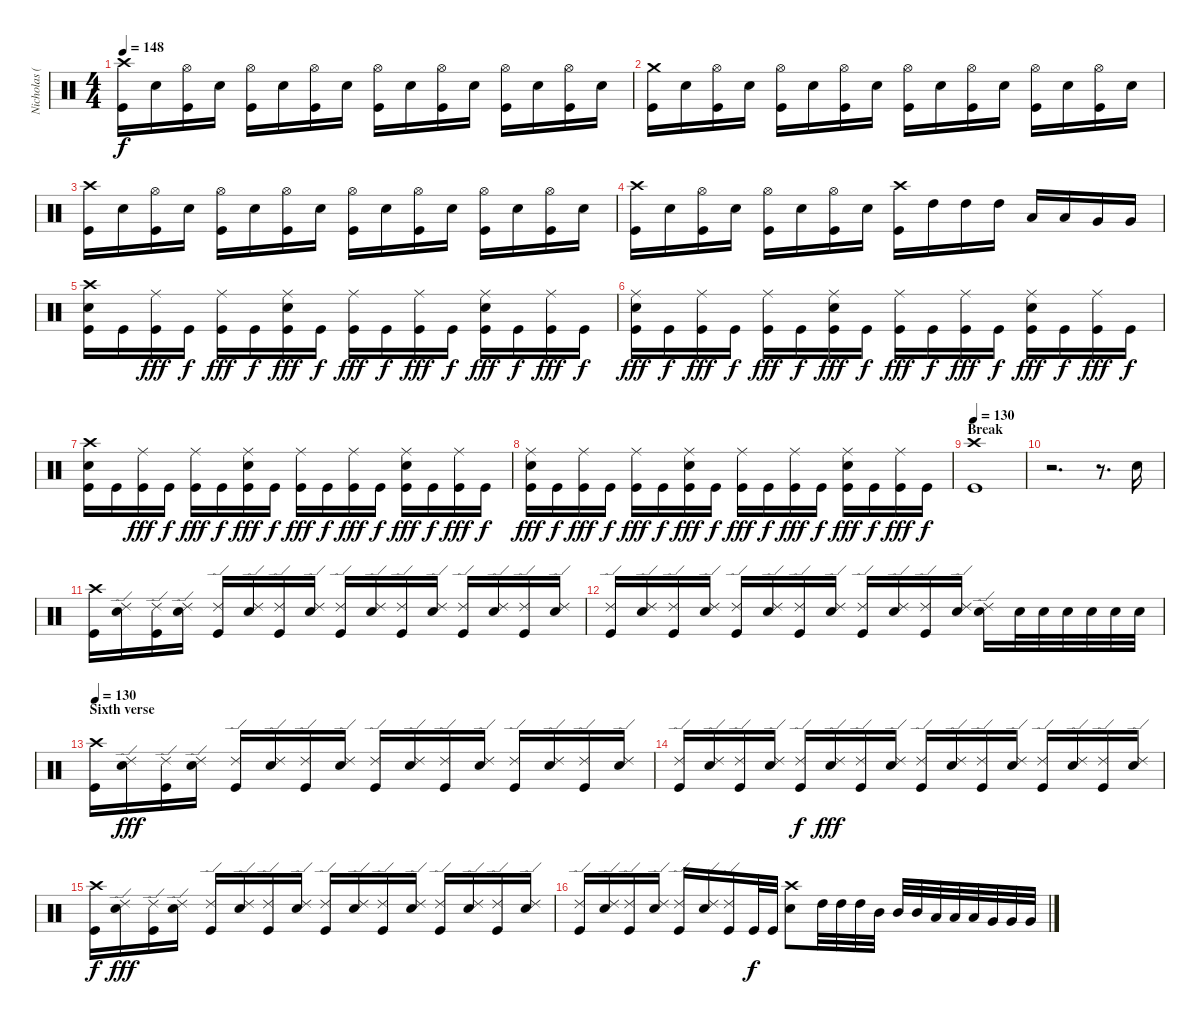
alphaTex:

\track ("Nicholas (Drums)" "Nicholas (") {instrument percussion}
\staff {score}
\articulation defaults
\ts (4 4)
\tempo 148
\clef neutral
\ks c
("Crash high (hit)" "Kick (hit)").16{dy f} "Electric Snare (hit)".16 ("Hi-Hat (open)" "Kick (hit)").16 "Electric Snare (hit)".16 ("Hi-Hat (open)" "Kick (hit)").16 "Electric Snare (hit)".16 ("Hi-Hat (open)" "Kick (hit)").16 "Electric Snare (hit)".16 ("Hi-Hat (open)" "Kick (hit)").16 "Electric Snare (hit)".16 ("Hi-Hat (open)" "Kick (hit)").16 "Electric Snare (hit)".16 ("Hi-Hat (open)" "Kick (hit)").16 "Electric Snare (hit)".16 ("Hi-Hat (open)" "Kick (hit)").16 "Electric Snare (hit)".16 |
("Crash medium (hit)" "Kick (hit)").16 "Electric Snare (hit)".16 ("Hi-Hat (open)" "Kick (hit)").16 "Electric Snare (hit)".16 ("Hi-Hat (open)" "Kick (hit)").16 "Electric Snare (hit)".16 ("Hi-Hat (open)" "Kick (hit)").16 "Electric Snare (hit)".16 ("Hi-Hat (open)" "Kick (hit)").16 "Electric Snare (hit)".16 ("Hi-Hat (open)" "Kick (hit)").16 "Electric Snare (hit)".16 ("Hi-Hat (open)" "Kick (hit)").16 "Electric Snare (hit)".16 ("Hi-Hat (open)" "Kick (hit)").16 "Electric Snare (hit)".16 |
("Crash high (hit)" "Kick (hit)").16 "Electric Snare (hit)".16 ("Hi-Hat (open)" "Kick (hit)").16 "Electric Snare (hit)".16 ("Hi-Hat (open)" "Kick (hit)").16 "Electric Snare (hit)".16 ("Hi-Hat (open)" "Kick (hit)").16 "Electric Snare (hit)".16 ("Hi-Hat (open)" "Kick (hit)").16 "Electric Snare (hit)".16 ("Hi-Hat (open)" "Kick (hit)").16 "Electric Snare (hit)".16 ("Hi-Hat (open)" "Kick (hit)").16 "Electric Snare (hit)".16 ("Hi-Hat (open)" "Kick (hit)").16 "Electric Snare (hit)".16 |
("Crash high (hit)" "Kick (hit)").16 "Electric Snare (hit)".16 ("Hi-Hat (open)" "Kick (hit)").16 "Electric Snare (hit)".16 ("Hi-Hat (open)" "Kick (hit)").16 "Electric Snare (hit)".16 ("Hi-Hat (open)" "Kick (hit)").16 "Electric Snare (hit)".16 ("Crash high (hit)" "Kick (hit)").16 "High Tom (hit)".16 "High Tom (hit)".16 "High Tom (hit)".16 "Low Tom (hit)".16 "Low Tom (hit)".16 "Very Low Tom (hit)".16 "Very Low Tom (hit)".16 |
("Crash high (hit)" "Electric Snare (hit)" "Kick (hit)").16 "Kick (hit)".16 ("Ride (middle)" "Kick (hit)").16{dy fff} "Kick (hit)".16{dy f} ("Ride (middle)" "Kick (hit)").16{dy fff} "Kick (hit)".16{dy f} ("Ride (middle)" "Electric Snare (hit)" "Kick (hit)").16{dy fff} "Kick (hit)".16{dy f} ("Ride (middle)" "Kick (hit)").16{dy fff} "Kick (hit)".16{dy f} ("Ride (middle)" "Kick (hit)").16{dy fff} "Kick (hit)".16{dy f} ("Ride (middle)" "Electric Snare (hit)" "Kick (hit)").16{dy fff} "Kick (hit)".16{dy f} ("Ride (middle)" "Kick (hit)").16{dy fff} "Kick (hit)".16{dy f} |
("Ride (middle)" "Electric Snare (hit)" "Kick (hit)").16{dy fff} "Kick (hit)".16{dy f} ("Ride (middle)" "Kick (hit)").16{dy fff} "Kick (hit)".16{dy f} ("Ride (middle)" "Kick (hit)").16{dy fff} "Kick (hit)".16{dy f} ("Ride (middle)" "Electric Snare (hit)" "Kick (hit)").16{dy fff} "Kick (hit)".16{dy f} ("Ride (middle)" "Kick (hit)").16{dy fff} "Kick (hit)".16{dy f} ("Ride (middle)" "Kick (hit)").16{dy fff} "Kick (hit)".16{dy f} ("Ride (middle)" "Electric Snare (hit)" "Kick (hit)").16{dy fff} "Kick (hit)".16{dy f} ("Ride (middle)" "Kick (hit)").16{dy fff} "Kick (hit)".16{dy f} |
("Crash high (hit)" "Electric Snare (hit)" "Kick (hit)").16 "Kick (hit)".16 ("Ride (middle)" "Kick (hit)").16{dy fff} "Kick (hit)".16{dy f} ("Ride (middle)" "Kick (hit)").16{dy fff} "Kick (hit)".16{dy f} ("Ride (middle)" "Electric Snare (hit)" "Kick (hit)").16{dy fff} "Kick (hit)".16{dy f} ("Ride (middle)" "Kick (hit)").16{dy fff} "Kick (hit)".16{dy f} ("Ride (middle)" "Kick (hit)").16{dy fff} "Kick (hit)".16{dy f} ("Ride (middle)" "Electric Snare (hit)" "Kick (hit)").16{dy fff} "Kick (hit)".16{dy f} ("Ride (middle)" "Kick (hit)").16{dy fff} "Kick (hit)".16{dy f} |
("Ride (middle)" "Electric Snare (hit)" "Kick (hit)").16{dy fff} "Kick (hit)".16{dy f} ("Ride (middle)" "Kick (hit)").16{dy fff} "Kick (hit)".16{dy f} ("Ride (middle)" "Kick (hit)").16{dy fff} "Kick (hit)".16{dy f} ("Ride (middle)" "Electric Snare (hit)" "Kick (hit)").16{dy fff} "Kick (hit)".16{dy f} ("Ride (middle)" "Kick (hit)").16{dy fff} "Kick (hit)".16{dy f} ("Ride (middle)" "Kick (hit)").16{dy fff} "Kick (hit)".16{dy f} ("Ride (middle)" "Electric Snare (hit)" "Kick (hit)").16{dy fff} "Kick (hit)".16{dy f} ("Ride (middle)" "Kick (hit)").16{dy fff} "Kick (hit)".16{dy f} |
\section ("" "Break")
\tempo 130
("Crash high (hit)" "Kick (hit)").1 |
r.2{d} r.8{d} "Electric Snare (hit)".16 |
("Crash high (hit)" "Kick (hit)").16 ("Ride (edge) 2" "Electric Snare (hit)").16 ("Ride (edge) 2" "Kick (hit)").16 ("Ride (edge) 2" "Electric Snare (hit)").16 ("Ride (edge) 2" "Kick (hit)").16 ("Ride (edge) 2" "Electric Snare (hit)").16 ("Ride (edge) 2" "Kick (hit)").16 ("Ride (edge) 2" "Electric Snare (hit)").16 ("Ride (edge) 2" "Kick (hit)").16 ("Ride (edge) 2" "Electric Snare (hit)").16 ("Ride (edge) 2" "Kick (hit)").16 ("Ride (edge) 2" "Electric Snare (hit)").16 ("Ride (edge) 2" "Kick (hit)").16 ("Ride (edge) 2" "Electric Snare (hit)").16 ("Ride (edge) 2" "Kick (hit)").16 ("Ride (edge) 2" "Electric Snare (hit)").16 |
("Ride (edge) 2" "Kick (hit)").16 ("Ride (edge) 2" "Electric Snare (hit)").16 ("Ride (edge) 2" "Kick (hit)").16 ("Ride (edge) 2" "Electric Snare (hit)").16 ("Ride (edge) 2" "Kick (hit)").16 ("Ride (edge) 2" "Electric Snare (hit)").16 ("Ride (edge) 2" "Kick (hit)").16 ("Ride (edge) 2" "Electric Snare (hit)").16 ("Ride (edge) 2" "Kick (hit)").16 ("Ride (edge) 2" "Electric Snare (hit)").16 ("Ride (edge) 2" "Kick (hit)").16 ("Ride (edge) 2" "Electric Snare (hit)").16 ("Ride (edge) 2" "Electric Snare (hit)").16 "Electric Snare (hit)".32 "Electric Snare (hit)".32 "Electric Snare (hit)".32 "Electric Snare (hit)".32 "Electric Snare (hit)".32 "Electric Snare (hit)".32 |
\section ("" "Sixth verse")
\tempo 130
("Crash high (hit)" "Kick (hit)").16 ("Ride (edge) 2" "Electric Snare (hit)").16{dy fff} ("Ride (edge) 2" "Kick (hit)").16 ("Ride (edge) 2" "Electric Snare (hit)").16 ("Ride (edge) 2" "Kick (hit)").16 ("Ride (edge) 2" "Electric Snare (hit)").16 ("Ride (edge) 2" "Kick (hit)").16 ("Ride (edge) 2" "Electric Snare (hit)").16 ("Ride (edge) 2" "Kick (hit)").16 ("Ride (edge) 2" "Electric Snare (hit)").16 ("Ride (edge) 2" "Kick (hit)").16 ("Ride (edge) 2" "Electric Snare (hit)").16 ("Ride (edge) 2" "Kick (hit)").16 ("Ride (edge) 2" "Electric Snare (hit)").16 ("Ride (edge) 2" "Kick (hit)").16 ("Ride (edge) 2" "Electric Snare (hit)").16 |
("Ride (edge) 2" "Kick (hit)").16 ("Ride (edge) 2" "Electric Snare (hit)").16 ("Ride (edge) 2" "Kick (hit)").16 ("Ride (edge) 2" "Electric Snare (hit)").16 ("Ride (edge) 2" "Kick (hit)").16{dy f} ("Ride (edge) 2" "Electric Snare (hit)").16{dy fff} ("Ride (edge) 2" "Kick (hit)").16 ("Ride (edge) 2" "Electric Snare (hit)").16 ("Ride (edge) 2" "Kick (hit)").16 ("Ride (edge) 2" "Electric Snare (hit)").16 ("Ride (edge) 2" "Kick (hit)").16 ("Ride (edge) 2" "Electric Snare (hit)").16 ("Ride (edge) 2" "Kick (hit)").16 ("Ride (edge) 2" "Electric Snare (hit)").16 ("Ride (edge) 2" "Kick (hit)").16 ("Ride (edge) 2" "Electric Snare (hit)").16 |
("Crash high (hit)" "Kick (hit)").16{dy f} ("Ride (edge) 2" "Electric Snare (hit)").16{dy fff} ("Ride (edge) 2" "Kick (hit)").16 ("Ride (edge) 2" "Electric Snare (hit)").16 ("Ride (edge) 2" "Kick (hit)").16 ("Ride (edge) 2" "Electric Snare (hit)").16 ("Ride (edge) 2" "Kick (hit)").16 ("Ride (edge) 2" "Electric Snare (hit)").16 ("Ride (edge) 2" "Kick (hit)").16 ("Ride (edge) 2" "Electric Snare (hit)").16 ("Ride (edge) 2" "Kick (hit)").16 ("Ride (edge) 2" "Electric Snare (hit)").16 ("Ride (edge) 2" "Kick (hit)").16 ("Ride (edge) 2" "Electric Snare (hit)").16 ("Ride (edge) 2" "Kick (hit)").16 ("Ride (edge) 2" "Electric Snare (hit)").16 |
("Ride (edge) 2" "Kick (hit)").16 ("Ride (edge) 2" "Electric Snare (hit)").16 ("Ride (edge) 2" "Kick (hit)").16 ("Ride (edge) 2" "Electric Snare (hit)").16 ("Ride (edge) 2" "Kick (hit)").16 ("Ride (edge) 2" "Electric Snare (hit)").16 ("Ride (edge) 2" "Kick (hit)").16 "Kick (hit)".32{dy f} "Kick (hit)".32 ("Crash high (hit)" "Electric Snare (hit)").8 "High Tom (hit)".32 "High Tom (hit)".32 "High Tom (hit)".32 "Mid Tom (hit)".32 "Mid Tom (hit)".32 "Mid Tom (hit)".32 "Low Tom (hit)".32 "Low Tom (hit)".32 "Low Tom (hit)".32 "Very Low Tom (hit)".32 "Very Low Tom (hit)".32 "Very Low Tom (hit)".32
